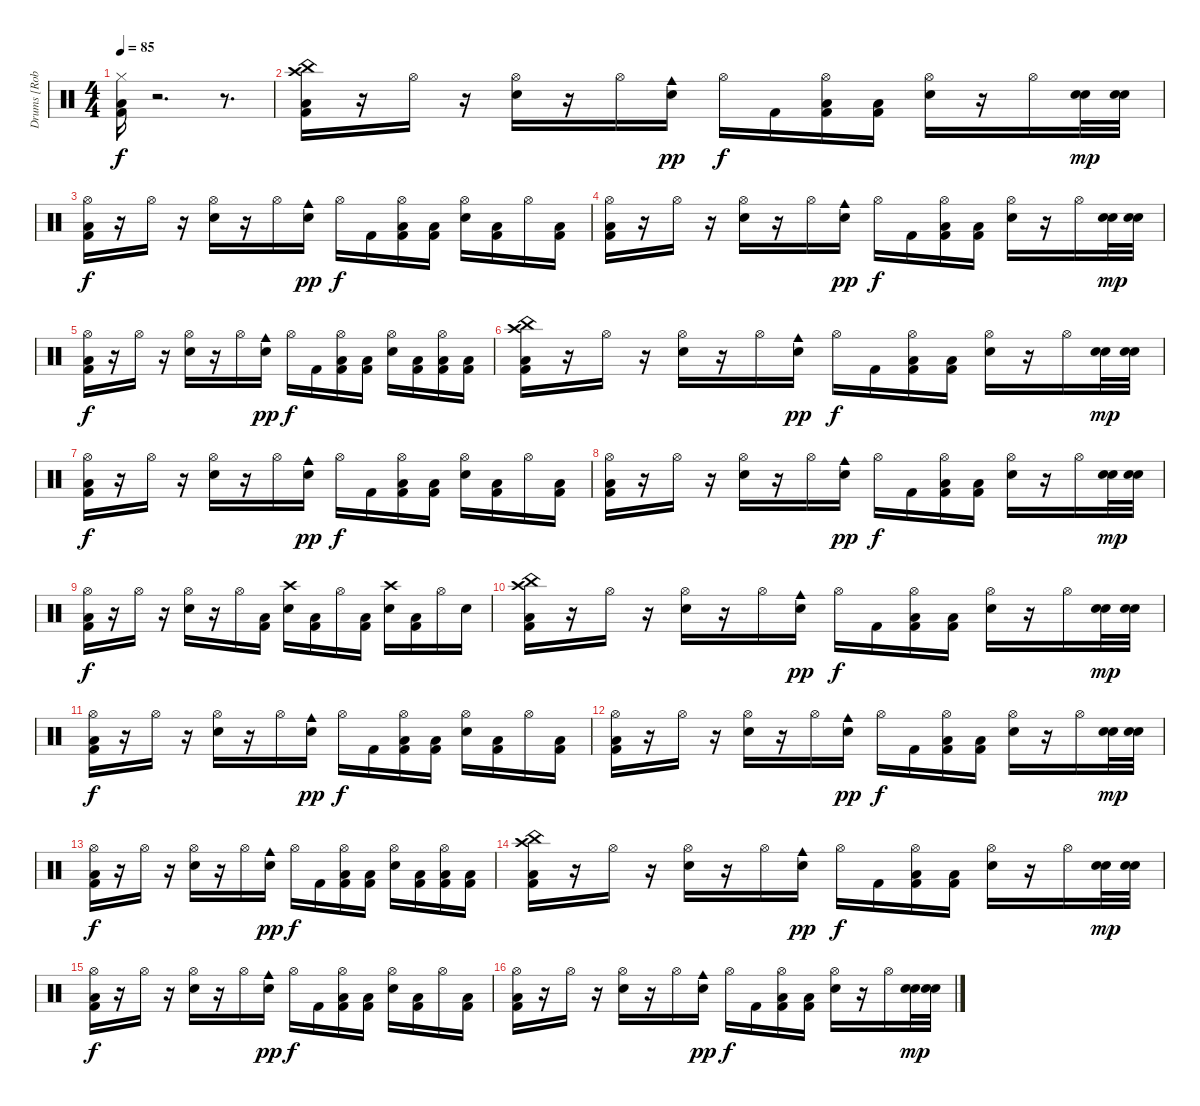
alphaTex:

\track ("Drums [Rob Bourdon]" "Drums [Rob") {instrument percussion}
\staff {score}
\articulation defaults
\ts (4 4)
\tempo 85
\clef neutral
\ks c
("Hi-Hat (closed)" "Low Floor Tom (hit)" "Kick (hit) 2").16{dy f} r.2{d} r.8{d} |
("China (hit)" "Crash high (hit)" "Low Floor Tom (hit)" "Kick (hit) 2").16 r.16 "Hi-Hat (open)".16 r.16 ("Hi-Hat (open)" "Snare (hit) 2").16 r.16 "Hi-Hat (open)".16 ("Snare (hit) 2" "Cowbell medium (hit)").16{dy pp} "Hi-Hat (open)".16{dy f} "Kick (hit) 2".16 ("Hi-Hat (open)" "Low Floor Tom (hit)" "Kick (hit) 2").16 ("Low Floor Tom (hit)" "Kick (hit) 2").16 ("Hi-Hat (open)" "Snare (hit) 2").16 r.16 "Hi-Hat (open)".16 ("Snare (hit) 2" "Snare (hit) 2").32{dy mp} ("Snare (hit) 2" "Snare (hit) 2").32 |
("Hi-Hat (open)" "Low Floor Tom (hit)" "Kick (hit) 2").16{dy f} r.16 "Hi-Hat (open)".16 r.16 ("Hi-Hat (open)" "Snare (hit) 2").16 r.16 "Hi-Hat (open)".16 ("Snare (hit) 2" "Cowbell medium (hit)").16{dy pp} "Hi-Hat (open)".16{dy f} "Kick (hit) 2".16 ("Hi-Hat (open)" "Low Floor Tom (hit)" "Kick (hit) 2").16 ("Low Floor Tom (hit)" "Kick (hit) 2").16 ("Hi-Hat (open)" "Snare (hit) 2").16 ("Low Floor Tom (hit)" "Kick (hit) 2").16 "Hi-Hat (open)".16 ("Low Floor Tom (hit)" "Kick (hit) 2").16 |
("Hi-Hat (open)" "Low Floor Tom (hit)" "Kick (hit) 2").16 r.16 "Hi-Hat (open)".16 r.16 ("Hi-Hat (open)" "Snare (hit) 2").16 r.16 "Hi-Hat (open)".16 ("Snare (hit) 2" "Cowbell medium (hit)").16{dy pp} "Hi-Hat (open)".16{dy f} "Kick (hit) 2".16 ("Hi-Hat (open)" "Low Floor Tom (hit)" "Kick (hit) 2").16 ("Low Floor Tom (hit)" "Kick (hit) 2").16 ("Hi-Hat (open)" "Snare (hit) 2").16 r.16 "Hi-Hat (open)".16 ("Snare (hit) 2" "Snare (hit) 2").32{dy mp} ("Snare (hit) 2" "Snare (hit) 2").32 |
("Hi-Hat (open)" "Low Floor Tom (hit)" "Kick (hit) 2").16{dy f} r.16 "Hi-Hat (open)".16 r.16 ("Hi-Hat (open)" "Snare (hit) 2").16 r.16 "Hi-Hat (open)".16 ("Snare (hit) 2" "Cowbell medium (hit)").16{dy pp} "Hi-Hat (open)".16{dy f} "Kick (hit) 2".16 ("Hi-Hat (open)" "Low Floor Tom (hit)" "Kick (hit) 2").16 ("Low Floor Tom (hit)" "Kick (hit) 2").16 ("Hi-Hat (open)" "Snare (hit) 2").16 ("Low Floor Tom (hit)" "Kick (hit) 2").16 ("Hi-Hat (open)" "Low Floor Tom (hit)" "Kick (hit) 2").16 ("Low Floor Tom (hit)" "Kick (hit) 2").16 |
("China (hit)" "Crash high (hit)" "Low Floor Tom (hit)" "Kick (hit) 2").16 r.16 "Hi-Hat (open)".16 r.16 ("Hi-Hat (open)" "Snare (hit) 2").16 r.16 "Hi-Hat (open)".16 ("Snare (hit) 2" "Cowbell medium (hit)").16{dy pp} "Hi-Hat (open)".16{dy f} "Kick (hit) 2".16 ("Hi-Hat (open)" "Low Floor Tom (hit)" "Kick (hit) 2").16 ("Low Floor Tom (hit)" "Kick (hit) 2").16 ("Hi-Hat (open)" "Snare (hit) 2").16 r.16 "Hi-Hat (open)".16 ("Snare (hit) 2" "Snare (hit) 2").32{dy mp} ("Snare (hit) 2" "Snare (hit) 2").32 |
("Hi-Hat (open)" "Low Floor Tom (hit)" "Kick (hit) 2").16{dy f} r.16 "Hi-Hat (open)".16 r.16 ("Hi-Hat (open)" "Snare (hit) 2").16 r.16 "Hi-Hat (open)".16 ("Snare (hit) 2" "Cowbell medium (hit)").16{dy pp} "Hi-Hat (open)".16{dy f} "Kick (hit) 2".16 ("Hi-Hat (open)" "Low Floor Tom (hit)" "Kick (hit) 2").16 ("Low Floor Tom (hit)" "Kick (hit) 2").16 ("Hi-Hat (open)" "Snare (hit) 2").16 ("Low Floor Tom (hit)" "Kick (hit) 2").16 "Hi-Hat (open)".16 ("Low Floor Tom (hit)" "Kick (hit) 2").16 |
("Hi-Hat (open)" "Low Floor Tom (hit)" "Kick (hit) 2").16 r.16 "Hi-Hat (open)".16 r.16 ("Hi-Hat (open)" "Snare (hit) 2").16 r.16 "Hi-Hat (open)".16 ("Snare (hit) 2" "Cowbell medium (hit)").16{dy pp} "Hi-Hat (open)".16{dy f} "Kick (hit) 2".16 ("Hi-Hat (open)" "Low Floor Tom (hit)" "Kick (hit) 2").16 ("Low Floor Tom (hit)" "Kick (hit) 2").16 ("Hi-Hat (open)" "Snare (hit) 2").16 r.16 "Hi-Hat (open)".16 ("Snare (hit) 2" "Snare (hit) 2").32{dy mp} ("Snare (hit) 2" "Snare (hit) 2").32 |
("Hi-Hat (open)" "Low Floor Tom (hit)" "Kick (hit) 2").16{dy f} r.16 "Hi-Hat (open)".16 r.16 ("Hi-Hat (open)" "Snare (hit) 2").16 r.16 "Hi-Hat (open)".16 ("Low Floor Tom (hit)" "Kick (hit) 2").16 ("Crash high (hit)" "Snare (hit) 2").16 ("Low Floor Tom (hit)" "Kick (hit) 2").16 "Hi-Hat (open)".16 ("Low Floor Tom (hit)" "Kick (hit) 2").16 ("Crash high (hit)" "Snare (hit) 2").16 ("Low Floor Tom (hit)" "Kick (hit) 2").16 "Hi-Hat (open)".16 "Snare (hit) 2".16 |
("China (hit)" "Crash high (hit)" "Low Floor Tom (hit)" "Kick (hit) 2").16 r.16 "Hi-Hat (open)".16 r.16 ("Hi-Hat (open)" "Snare (hit) 2").16 r.16 "Hi-Hat (open)".16 ("Snare (hit) 2" "Cowbell medium (hit)").16{dy pp} "Hi-Hat (open)".16{dy f} "Kick (hit) 2".16 ("Hi-Hat (open)" "Low Floor Tom (hit)" "Kick (hit) 2").16 ("Low Floor Tom (hit)" "Kick (hit) 2").16 ("Hi-Hat (open)" "Snare (hit) 2").16 r.16 "Hi-Hat (open)".16 ("Snare (hit) 2" "Snare (hit) 2").32{dy mp} ("Snare (hit) 2" "Snare (hit) 2").32 |
("Hi-Hat (open)" "Low Floor Tom (hit)" "Kick (hit) 2").16{dy f} r.16 "Hi-Hat (open)".16 r.16 ("Hi-Hat (open)" "Snare (hit) 2").16 r.16 "Hi-Hat (open)".16 ("Snare (hit) 2" "Cowbell medium (hit)").16{dy pp} "Hi-Hat (open)".16{dy f} "Kick (hit) 2".16 ("Hi-Hat (open)" "Low Floor Tom (hit)" "Kick (hit) 2").16 ("Low Floor Tom (hit)" "Kick (hit) 2").16 ("Hi-Hat (open)" "Snare (hit) 2").16 ("Low Floor Tom (hit)" "Kick (hit) 2").16 "Hi-Hat (open)".16 ("Low Floor Tom (hit)" "Kick (hit) 2").16 |
("Hi-Hat (open)" "Low Floor Tom (hit)" "Kick (hit) 2").16 r.16 "Hi-Hat (open)".16 r.16 ("Hi-Hat (open)" "Snare (hit) 2").16 r.16 "Hi-Hat (open)".16 ("Snare (hit) 2" "Cowbell medium (hit)").16{dy pp} "Hi-Hat (open)".16{dy f} "Kick (hit) 2".16 ("Hi-Hat (open)" "Low Floor Tom (hit)" "Kick (hit) 2").16 ("Low Floor Tom (hit)" "Kick (hit) 2").16 ("Hi-Hat (open)" "Snare (hit) 2").16 r.16 "Hi-Hat (open)".16 ("Snare (hit) 2" "Snare (hit) 2").32{dy mp} ("Snare (hit) 2" "Snare (hit) 2").32 |
("Hi-Hat (open)" "Low Floor Tom (hit)" "Kick (hit) 2").16{dy f} r.16 "Hi-Hat (open)".16 r.16 ("Hi-Hat (open)" "Snare (hit) 2").16 r.16 "Hi-Hat (open)".16 ("Snare (hit) 2" "Cowbell medium (hit)").16{dy pp} "Hi-Hat (open)".16{dy f} "Kick (hit) 2".16 ("Hi-Hat (open)" "Low Floor Tom (hit)" "Kick (hit) 2").16 ("Low Floor Tom (hit)" "Kick (hit) 2").16 ("Hi-Hat (open)" "Snare (hit) 2").16 ("Low Floor Tom (hit)" "Kick (hit) 2").16 ("Hi-Hat (open)" "Low Floor Tom (hit)" "Kick (hit) 2").16 ("Low Floor Tom (hit)" "Kick (hit) 2").16 |
("China (hit)" "Crash high (hit)" "Low Floor Tom (hit)" "Kick (hit) 2").16 r.16 "Hi-Hat (open)".16 r.16 ("Hi-Hat (open)" "Snare (hit) 2").16 r.16 "Hi-Hat (open)".16 ("Snare (hit) 2" "Cowbell medium (hit)").16{dy pp} "Hi-Hat (open)".16{dy f} "Kick (hit) 2".16 ("Hi-Hat (open)" "Low Floor Tom (hit)" "Kick (hit) 2").16 ("Low Floor Tom (hit)" "Kick (hit) 2").16 ("Hi-Hat (open)" "Snare (hit) 2").16 r.16 "Hi-Hat (open)".16 ("Snare (hit) 2" "Snare (hit) 2").32{dy mp} ("Snare (hit) 2" "Snare (hit) 2").32 |
("Hi-Hat (open)" "Low Floor Tom (hit)" "Kick (hit) 2").16{dy f} r.16 "Hi-Hat (open)".16 r.16 ("Hi-Hat (open)" "Snare (hit) 2").16 r.16 "Hi-Hat (open)".16 ("Snare (hit) 2" "Cowbell medium (hit)").16{dy pp} "Hi-Hat (open)".16{dy f} "Kick (hit) 2".16 ("Hi-Hat (open)" "Low Floor Tom (hit)" "Kick (hit) 2").16 ("Low Floor Tom (hit)" "Kick (hit) 2").16 ("Hi-Hat (open)" "Snare (hit) 2").16 ("Low Floor Tom (hit)" "Kick (hit) 2").16 "Hi-Hat (open)".16 ("Low Floor Tom (hit)" "Kick (hit) 2").16 |
("Hi-Hat (open)" "Low Floor Tom (hit)" "Kick (hit) 2").16 r.16 "Hi-Hat (open)".16 r.16 ("Hi-Hat (open)" "Snare (hit) 2").16 r.16 "Hi-Hat (open)".16 ("Snare (hit) 2" "Cowbell medium (hit)").16{dy pp} "Hi-Hat (open)".16{dy f} "Kick (hit) 2".16 ("Hi-Hat (open)" "Low Floor Tom (hit)" "Kick (hit) 2").16 ("Low Floor Tom (hit)" "Kick (hit) 2").16 ("Hi-Hat (open)" "Snare (hit) 2").16 r.16 "Hi-Hat (open)".16 ("Snare (hit) 2" "Snare (hit) 2").32{dy mp} ("Snare (hit) 2" "Snare (hit) 2").32
